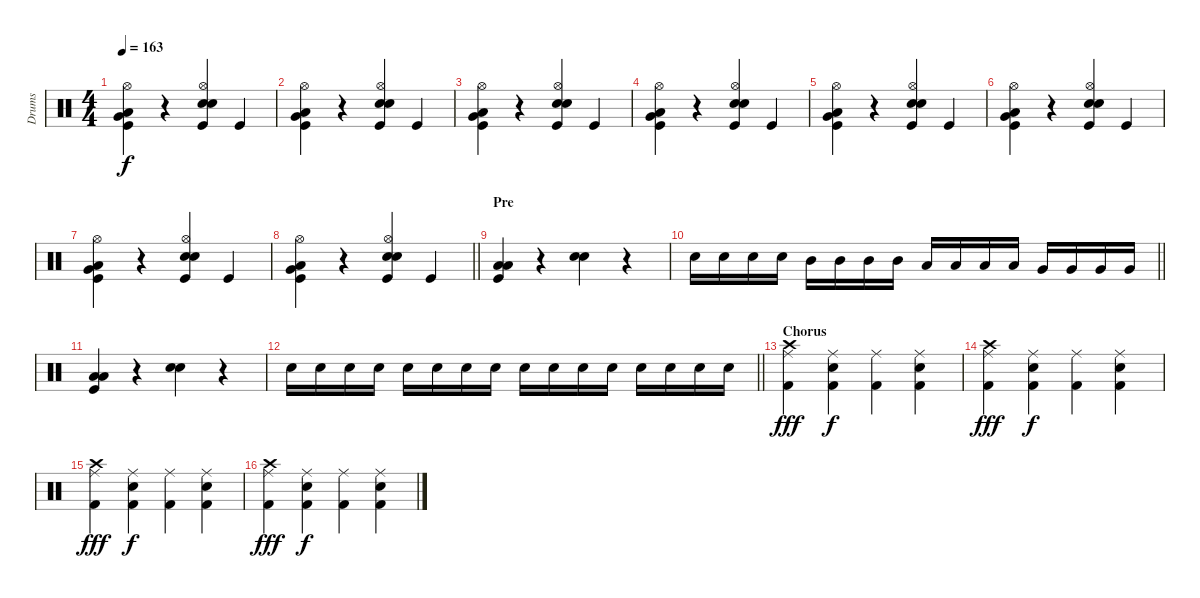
\track ("Drums" "Drums") {instrument percussion}
\staff {score}
\articulation defaults
\ts (4 4)
\tempo 163
\clef neutral
\ks c
("Kick (hit)" "Low Floor Tom (hit)" "Very Low Tom (hit)" "Hi-Hat (open)").4{dy f} r.4 ("Kick (hit)" "Snare (hit) 2" "Snare (hit) 2" "Hi-Hat (open)").4 "Kick (hit)".4 |
("Kick (hit)" "Low Floor Tom (hit)" "Very Low Tom (hit)" "Hi-Hat (open)").4 r.4 ("Kick (hit)" "Snare (hit) 2" "Snare (hit) 2" "Hi-Hat (open)").4 "Kick (hit)".4 |
("Kick (hit)" "Low Floor Tom (hit)" "Very Low Tom (hit)" "Hi-Hat (open)").4 r.4 ("Kick (hit)" "Snare (hit) 2" "Snare (hit) 2" "Hi-Hat (open)").4 "Kick (hit)".4 |
("Kick (hit)" "Low Floor Tom (hit)" "Very Low Tom (hit)" "Hi-Hat (open)").4 r.4 ("Kick (hit)" "Snare (hit) 2" "Snare (hit) 2" "Hi-Hat (open)").4 "Kick (hit)".4 |
("Kick (hit)" "Low Floor Tom (hit)" "Very Low Tom (hit)" "Hi-Hat (open)").4 r.4 ("Kick (hit)" "Snare (hit) 2" "Snare (hit) 2" "Hi-Hat (open)").4 "Kick (hit)".4 |
("Kick (hit)" "Low Floor Tom (hit)" "Very Low Tom (hit)" "Hi-Hat (open)").4 r.4 ("Kick (hit)" "Snare (hit) 2" "Snare (hit) 2" "Hi-Hat (open)").4 "Kick (hit)".4 |
("Kick (hit)" "Low Floor Tom (hit)" "Very Low Tom (hit)" "Hi-Hat (open)").4 r.4 ("Kick (hit)" "Snare (hit) 2" "Snare (hit) 2" "Hi-Hat (open)").4 "Kick (hit)".4 |
\barLineRight lightlight
("Kick (hit)" "Low Floor Tom (hit)" "Very Low Tom (hit)" "Hi-Hat (open)").4 r.4 ("Kick (hit)" "Snare (hit) 2" "Snare (hit) 2" "Hi-Hat (open)").4 "Kick (hit)".4 |
\section ("" "Pre")
("Kick (hit)" "Low Tom (hit)" "Low Floor Tom (hit)").4 r.4 ("Snare (hit) 2" "Snare (hit) 2").4 r.4 |
\barLineRight lightlight "Snare (hit) 2".16 "Snare (hit) 2".16 "Snare (hit) 2".16 "Snare (hit) 2".16 "Mid Tom (hit)".16 "Mid Tom (hit)".16 "Mid Tom (hit)".16 "Mid Tom (hit)".16 "Low Tom (hit)".16 "Low Tom (hit)".16 "Low Tom (hit)".16 "Low Tom (hit)".16 "Very Low Tom (hit)".16 "Very Low Tom (hit)".16 "Very Low Tom (hit)".16 "Very Low Tom (hit)".16
|
("Kick (hit)" "Low Tom (hit)" "Low Floor Tom (hit)").4 r.4 ("Snare (hit) 2" "Snare (hit) 2").4 r.4 |
\barLineRight lightlight "Snare (hit) 2".16 "Snare (hit) 2".16 "Snare (hit) 2".16 "Snare (hit) 2".16 "Snare (hit) 2".16 "Snare (hit) 2".16 "Snare (hit) 2".16 "Snare (hit) 2".16 "Snare (hit) 2".16 "Snare (hit) 2".16 "Snare (hit) 2".16 "Snare (hit) 2".16 "Snare (hit) 2".16 "Snare (hit) 2".16 "Snare (hit) 2".16 "Snare (hit) 2".16
|
\section ("" "Chorus")
("Kick (hit) 2" "Crash high (hit)" "Ride (middle)").4{dy fff} ("Kick (hit) 2" "Snare (hit) 2" "Ride (middle)").4{dy f} ("Kick (hit) 2" "Ride (middle)").4 ("Kick (hit) 2" "Snare (hit) 2" "Ride (middle)").4 |
("Kick (hit) 2" "Crash high (hit)" "Ride (middle)").4{dy fff} ("Kick (hit) 2" "Snare (hit) 2" "Ride (middle)").4{dy f} ("Kick (hit) 2" "Ride (middle)").4 ("Kick (hit) 2" "Snare (hit) 2" "Ride (middle)").4 |
("Kick (hit) 2" "Crash high (hit)" "Ride (middle)").4{dy fff} ("Kick (hit) 2" "Snare (hit) 2" "Ride (middle)").4{dy f} ("Kick (hit) 2" "Ride (middle)").4 ("Kick (hit) 2" "Snare (hit) 2" "Ride (middle)").4 |
("Kick (hit) 2" "Crash high (hit)" "Ride (middle)").4{dy fff} ("Kick (hit) 2" "Snare (hit) 2" "Ride (middle)").4{dy f} ("Kick (hit) 2" "Ride (middle)").4 ("Kick (hit) 2" "Snare (hit) 2" "Ride (middle)").4
